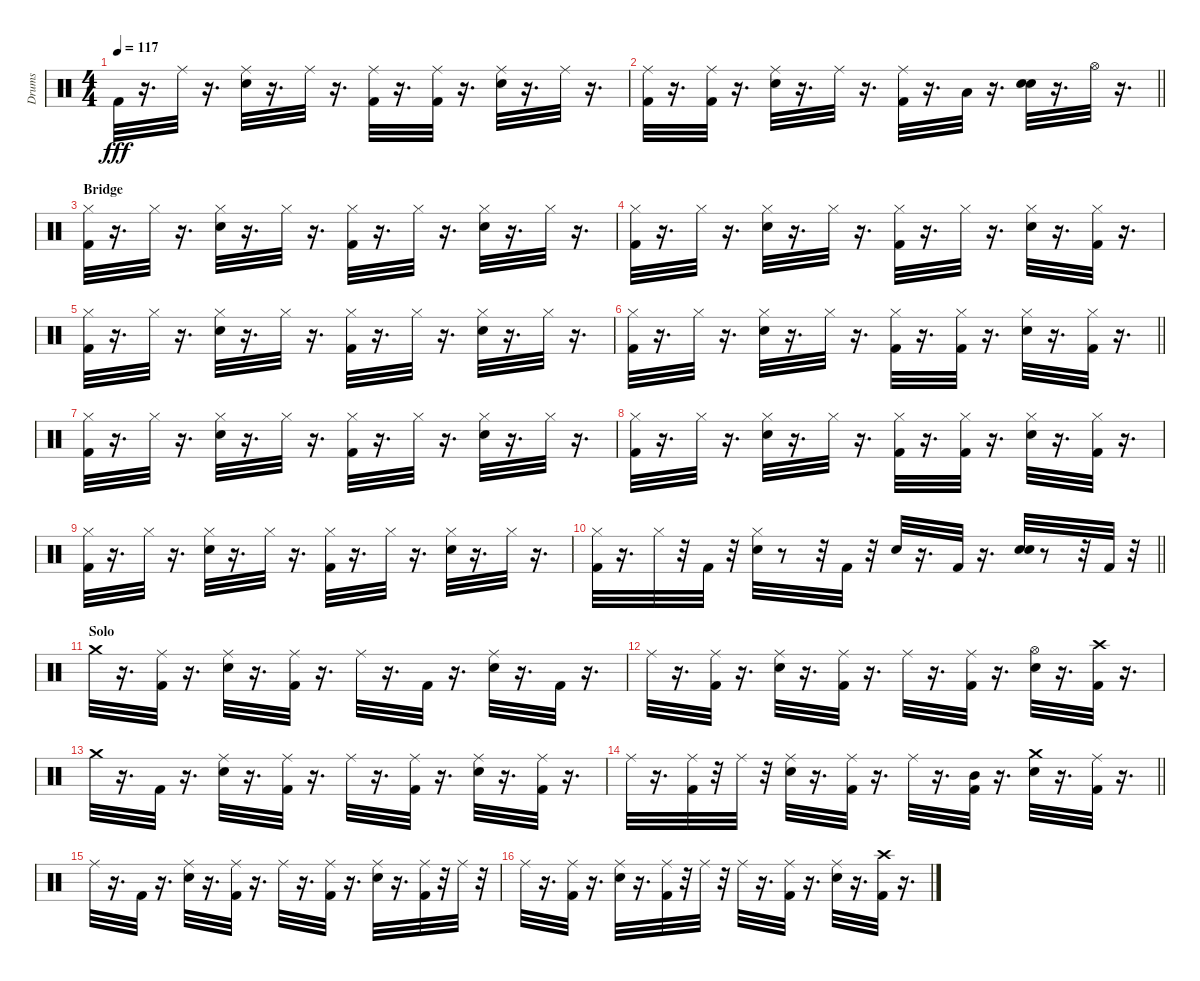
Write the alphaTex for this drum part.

\track ("Drums" "Drums") {instrument percussion}
\staff {score}
\articulation defaults
\ts (4 4)
\tempo 117
\clef neutral
\ks c "Kick (hit) 2".32{dy fff}
r.16{d} "Ride (middle)".32 r.16{d} ("Ride (middle)" "Electric Snare (hit)").32 r.16{d} "Ride (middle)".32 r.16{d} ("Kick (hit) 2" "Ride (middle)").32 r.16{d} ("Kick (hit) 2" "Ride (middle)").32 r.16{d} ("Ride (middle)" "Electric Snare (hit)").32 r.16{d} "Ride (middle)".32 r.16{d} |
\barLineRight lightlight
("Ride (middle)" "Kick (hit) 2").32 r.16{d} ("Kick (hit) 2" "Ride (middle)").32 r.16{d} ("Ride (middle)" "Electric Snare (hit)").32 r.16{d} "Ride (middle)".32 r.16{d} ("Kick (hit) 2" "Ride (middle)").32 r.16{d} "Low Tom (hit)".32 r.16{d} ("Electric Snare (hit)" "Electric Snare (hit)").32 r.16{d} "Hi-Hat (open)".32 r.16{d} |
\section ("" "Bridge")
("Hi-Hat (closed)" "Kick (hit) 2").32 r.16{d} "Hi-Hat (closed)".32 r.16{d} ("Hi-Hat (closed)" "Electric Snare (hit)").32 r.16{d} "Hi-Hat (closed)".32 r.16{d} ("Kick (hit) 2" "Hi-Hat (closed)").32 r.16{d} "Hi-Hat (closed)".32 r.16{d} ("Electric Snare (hit)" "Hi-Hat (closed)").32 r.16{d} "Hi-Hat (closed)".32 r.16{d} |
("Kick (hit) 2" "Hi-Hat (closed)").32 r.16{d} "Hi-Hat (closed)".32 r.16{d} ("Hi-Hat (closed)" "Electric Snare (hit)").32 r.16{d} "Hi-Hat (closed)".32 r.16{d} ("Kick (hit) 2" "Hi-Hat (closed)").32 r.16{d} "Hi-Hat (closed)".32 r.16{d} ("Electric Snare (hit)" "Hi-Hat (closed)").32 r.16{d} ("Kick (hit) 2" "Hi-Hat (closed)").32 r.16{d} |
("Hi-Hat (closed)" "Kick (hit) 2").32 r.16{d} "Hi-Hat (closed)".32 r.16{d} ("Hi-Hat (closed)" "Electric Snare (hit)").32 r.16{d} "Hi-Hat (closed)".32 r.16{d} ("Kick (hit) 2" "Hi-Hat (closed)").32 r.16{d} "Hi-Hat (closed)".32 r.16{d} ("Electric Snare (hit)" "Hi-Hat (closed)").32 r.16{d} "Hi-Hat (closed)".32 r.16{d} |
\barLineRight lightlight
("Kick (hit) 2" "Hi-Hat (closed)").32 r.16{d} "Hi-Hat (closed)".32 r.16{d} ("Electric Snare (hit)" "Hi-Hat (closed)").32 r.16{d} "Hi-Hat (closed)".32 r.16{d} ("Kick (hit) 2" "Hi-Hat (closed)").32 r.16{d} ("Kick (hit) 2" "Hi-Hat (closed)").32 r.16{d} ("Electric Snare (hit)" "Hi-Hat (closed)").32 r.16{d} ("Hi-Hat (closed)" "Kick (hit) 2").32 r.16{d} |
("Hi-Hat (closed)" "Kick (hit) 2").32 r.16{d} "Hi-Hat (closed)".32 r.16{d} ("Electric Snare (hit)" "Hi-Hat (closed)").32 r.16{d} "Hi-Hat (closed)".32 r.16{d} ("Kick (hit) 2" "Hi-Hat (closed)").32 r.16{d} "Hi-Hat (closed)".32 r.16{d} ("Electric Snare (hit)" "Hi-Hat (closed)").32 r.16{d} "Hi-Hat (closed)".32 r.16{d} |
("Kick (hit) 2" "Hi-Hat (closed)").32 r.16{d} "Hi-Hat (closed)".32 r.16{d} ("Electric Snare (hit)" "Hi-Hat (closed)").32 r.16{d} "Hi-Hat (closed)".32 r.16{d} ("Kick (hit) 2" "Hi-Hat (closed)").32 r.16{d} ("Hi-Hat (closed)" "Kick (hit) 2").32 r.16{d} ("Electric Snare (hit)" "Hi-Hat (closed)").32 r.16{d} ("Kick (hit) 2" "Hi-Hat (closed)").32 r.16{d} |
("Hi-Hat (closed)" "Kick (hit) 2").32 r.16{d} "Hi-Hat (closed)".32 r.16{d} ("Hi-Hat (closed)" "Electric Snare (hit)").32 r.16{d} "Hi-Hat (closed)".32 r.16{d} ("Kick (hit) 2" "Hi-Hat (closed)").32 r.16{d} "Hi-Hat (closed)".32 r.16{d} ("Electric Snare (hit)" "Hi-Hat (closed)").32 r.16{d} "Hi-Hat (closed)".32 r.16{d} |
\barLineRight lightlight
("Kick (hit) 2" "Hi-Hat (closed)").32 r.16{d} "Hi-Hat (closed)".32 r.32 "Kick (hit) 2".32 r.32 ("Electric Snare (hit)" "Hi-Hat (closed)").32 r.8 r.32 "Kick (hit) 2".32 r.32 "Electric Snare (hit)".32 r.16{d} "Kick (hit) 2".32 r.16{d} ("Electric Snare (hit)" "Electric Snare (hit)").32 r.8 r.32 "Kick (hit) 2".32 r.32 |
\section ("" "Solo")
"Crash medium (hit)".32 r.16{d} ("Kick (hit) 2" "Ride (middle)").32 r.16{d} ("Electric Snare (hit)" "Ride (middle)").32 r.16{d} ("Kick (hit) 2" "Ride (middle)").32 r.16{d} "Ride (middle)".32 r.16{d} "Kick (hit) 2".32 r.16{d} ("Electric Snare (hit)" "Ride (middle)").32 r.16{d} "Kick (hit) 2".32 r.16{d} |
"Ride (middle)".32 r.16{d} ("Kick (hit) 2" "Ride (middle)").32 r.16{d} ("Electric Snare (hit)" "Ride (middle)").32 r.16{d} ("Ride (middle)" "Kick (hit) 2").32 r.16{d} "Ride (middle)".32 r.16{d} ("Ride (middle)" "Kick (hit) 2").32 r.16{d} ("Electric Snare (hit)" "Hi-Hat (open)").32 r.16{d} ("Crash high (hit)" "Kick (hit) 2").32 r.16{d} |
"Crash medium (hit)".32 r.16{d} "Kick (hit) 2".32 r.16{d} ("Electric Snare (hit)" "Ride (middle)").32 r.16{d} ("Kick (hit) 2" "Ride (middle)").32 r.16{d} "Ride (middle)".32 r.16{d} ("Kick (hit) 2" "Ride (middle)").32 r.16{d} ("Electric Snare (hit)" "Ride (middle)").32 r.16{d} ("Kick (hit) 2" "Ride (middle)").32 r.16{d} |
\barLineRight lightlight "Ride (middle)".32
r.16{d} ("Ride (middle)" "Kick (hit) 2").32 r.32 "Ride (middle)".32 r.32 ("Electric Snare (hit)" "Ride (middle)").32 r.16{d} ("Kick (hit) 2" "Ride (middle)").32 r.16{d} "Ride (middle)".32 r.16{d} ("Mid Tom (hit)" "Kick (hit) 2").32 r.16{d} ("Electric Snare (hit)" "Crash medium (hit)").32 r.16{d} ("Kick (hit) 2" "Ride (middle)").32 r.16{d} |
"Ride (middle)".32 r.16{d} "Kick (hit) 2".32 r.16{d} ("Electric Snare (hit)" "Ride (middle)").32 r.16{d} ("Kick (hit) 2" "Ride (middle)").32 r.16{d} "Ride (middle)".32 r.16{d} ("Kick (hit) 2" "Ride (middle)").32 r.16{d} ("Electric Snare (hit)" "Ride (middle)").32 r.16{d} ("Kick (hit) 2" "Ride (middle)").32 r.32 "Ride (middle)".32 r.32 |
"Ride (middle)".32 r.16{d} ("Ride (middle)" "Kick (hit) 2").32 r.16{d} ("Electric Snare (hit)" "Ride (middle)").32 r.16{d} ("Kick (hit) 2" "Ride (middle)").32 r.32 "Ride (middle)".32 r.32 "Ride (middle)".32 r.16{d} ("Kick (hit) 2" "Ride (middle)").32 r.16{d} ("Electric Snare (hit)" "Ride (middle)").32 r.16{d} ("Kick (hit) 2" "Crash high (hit)").32 r.16{d}
